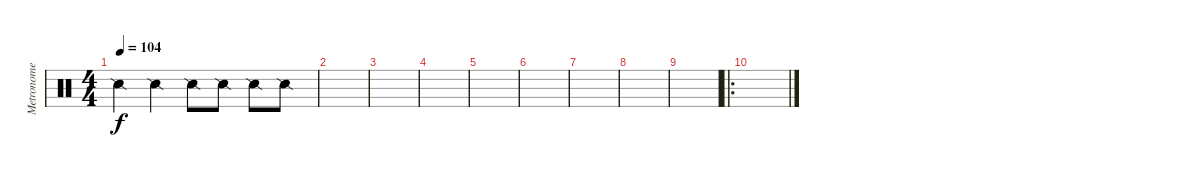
\track ("Metronome" "Metronome") {instrument percussion}
\staff {score}
\articulation defaults
\ts (4 4)
\tempo 104
\clef neutral
\ks c "Snare (side stick) 2".4{dy f} "Snare (side stick) 2".4 "Snare (side stick) 2".8 "Snare (side stick) 2".8 "Snare (side stick) 2".8 "Snare (side stick) 2".8
|
|
|
|
|
|
|
|
|
\ro
